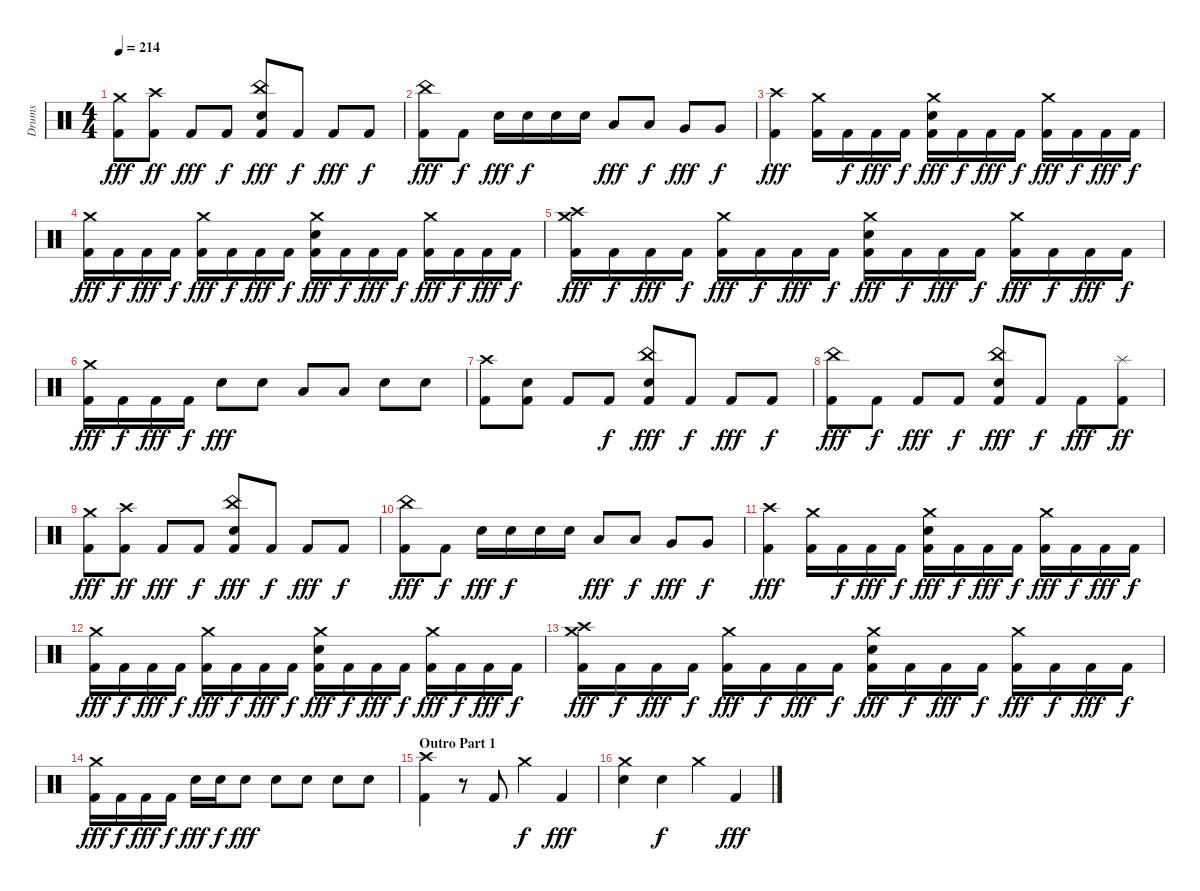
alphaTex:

\track ("Drums" "Drums") {instrument percussion}
\staff {score}
\articulation defaults
\ts (4 4)
\tempo 214
\clef neutral
\ks c
("Crash medium (hit)" "Kick (hit) 2").8{dy fff} ("Crash high (hit)" "Kick (hit) 2").8{dy ff} "Kick (hit) 2".8{dy fff} "Kick (hit) 2".8{dy f} ("China (hit)" "Electric Snare (hit)" "Kick (hit) 2").8{dy fff} "Kick (hit) 2".8{dy f} "Kick (hit) 2".8{dy fff} "Kick (hit) 2".8{dy f} |
("China (hit)" "Kick (hit) 2").8{dy fff} "Kick (hit) 2".8{dy f} "Electric Snare (hit)".16{dy fff} "Electric Snare (hit)".16{dy f} "Electric Snare (hit)".16 "Electric Snare (hit)".16 "Low Tom (hit)".8{dy fff} "Low Tom (hit)".8{dy f} "Very Low Tom (hit)".8{dy fff} "Very Low Tom (hit)".8{dy f} |
("Crash high (hit)" "Kick (hit) 2").4{dy fff} ("Crash medium (hit)" "Kick (hit) 2").16 "Kick (hit) 2".16{dy f} "Kick (hit) 2".16{dy fff} "Kick (hit) 2".16{dy f} ("Crash medium (hit)" "Electric Snare (hit)" "Kick (hit) 2").16{dy fff} "Kick (hit) 2".16{dy f} "Kick (hit) 2".16{dy fff} "Kick (hit) 2".16{dy f} ("Crash medium (hit)" "Kick (hit) 2").16{dy fff} "Kick (hit) 2".16{dy f} "Kick (hit) 2".16{dy fff} "Kick (hit) 2".16{dy f} |
("Crash medium (hit)" "Kick (hit) 2").16{dy fff} "Kick (hit) 2".16{dy f} "Kick (hit) 2".16{dy fff} "Kick (hit) 2".16{dy f} ("Crash medium (hit)" "Kick (hit) 2").16{dy fff} "Kick (hit) 2".16{dy f} "Kick (hit) 2".16{dy fff} "Kick (hit) 2".16{dy f} ("Crash medium (hit)" "Electric Snare (hit)" "Kick (hit) 2").16{dy fff} "Kick (hit) 2".16{dy f} "Kick (hit) 2".16{dy fff} "Kick (hit) 2".16{dy f} ("Crash medium (hit)" "Kick (hit) 2").16{dy fff} "Kick (hit) 2".16{dy f} "Kick (hit) 2".16{dy fff} "Kick (hit) 2".16{dy f} |
("Crash medium (hit)" "Crash high (hit)" "Kick (hit) 2").16{dy fff} "Kick (hit) 2".16{dy f} "Kick (hit) 2".16{dy fff} "Kick (hit) 2".16{dy f} ("Crash medium (hit)" "Kick (hit) 2").16{dy fff} "Kick (hit) 2".16{dy f} "Kick (hit) 2".16{dy fff} "Kick (hit) 2".16{dy f} ("Crash medium (hit)" "Electric Snare (hit)" "Kick (hit) 2").16{dy fff} "Kick (hit) 2".16{dy f} "Kick (hit) 2".16{dy fff} "Kick (hit) 2".16{dy f} ("Crash medium (hit)" "Kick (hit) 2").16{dy fff} "Kick (hit) 2".16{dy f} "Kick (hit) 2".16{dy fff} "Kick (hit) 2".16{dy f} |
("Crash medium (hit)" "Kick (hit) 2").16{dy fff} "Kick (hit) 2".16{dy f} "Kick (hit) 2".16{dy fff} "Kick (hit) 2".16{dy f} "Electric Snare (hit)".8{dy fff} "Electric Snare (hit)".8 "Low Tom (hit)".8 "Low Tom (hit)".8 "Electric Snare (hit)".8 "Electric Snare (hit)".8 |
("Crash high (hit)" "Kick (hit) 2").8 ("Electric Snare (hit)" "Kick (hit) 2").8 "Kick (hit) 2".8 "Kick (hit) 2".8{dy f} ("China (hit)" "Electric Snare (hit)" "Kick (hit) 2").8{dy fff} "Kick (hit) 2".8{dy f} "Kick (hit) 2".8{dy fff} "Kick (hit) 2".8{dy f} |
("China (hit)" "Kick (hit) 2").8{dy fff} "Kick (hit) 2".8{dy f} "Kick (hit) 2".8{dy fff} "Kick (hit) 2".8{dy f} ("China (hit)" "Electric Snare (hit)" "Kick (hit) 2").8{dy fff} "Kick (hit) 2".8{dy f} "Kick (hit) 2".8{dy fff} ("Splash (hit)" "Kick (hit) 2").8{dy ff} |
("Crash medium (hit)" "Kick (hit) 2").8{dy fff} ("Crash high (hit)" "Kick (hit) 2").8{dy ff} "Kick (hit) 2".8{dy fff} "Kick (hit) 2".8{dy f} ("China (hit)" "Electric Snare (hit)" "Kick (hit) 2").8{dy fff} "Kick (hit) 2".8{dy f} "Kick (hit) 2".8{dy fff} "Kick (hit) 2".8{dy f} |
("China (hit)" "Kick (hit) 2").8{dy fff} "Kick (hit) 2".8{dy f} "Electric Snare (hit)".16{dy fff} "Electric Snare (hit)".16{dy f} "Electric Snare (hit)".16 "Electric Snare (hit)".16 "Low Tom (hit)".8{dy fff} "Low Tom (hit)".8{dy f} "Very Low Tom (hit)".8{dy fff} "Very Low Tom (hit)".8{dy f} |
("Crash high (hit)" "Kick (hit) 2").4{dy fff} ("Crash medium (hit)" "Kick (hit) 2").16 "Kick (hit) 2".16{dy f} "Kick (hit) 2".16{dy fff} "Kick (hit) 2".16{dy f} ("Crash medium (hit)" "Electric Snare (hit)" "Kick (hit) 2").16{dy fff} "Kick (hit) 2".16{dy f} "Kick (hit) 2".16{dy fff} "Kick (hit) 2".16{dy f} ("Crash medium (hit)" "Kick (hit) 2").16{dy fff} "Kick (hit) 2".16{dy f} "Kick (hit) 2".16{dy fff} "Kick (hit) 2".16{dy f} |
("Crash medium (hit)" "Kick (hit) 2").16{dy fff} "Kick (hit) 2".16{dy f} "Kick (hit) 2".16{dy fff} "Kick (hit) 2".16{dy f} ("Crash medium (hit)" "Kick (hit) 2").16{dy fff} "Kick (hit) 2".16{dy f} "Kick (hit) 2".16{dy fff} "Kick (hit) 2".16{dy f} ("Crash medium (hit)" "Electric Snare (hit)" "Kick (hit) 2").16{dy fff} "Kick (hit) 2".16{dy f} "Kick (hit) 2".16{dy fff} "Kick (hit) 2".16{dy f} ("Crash medium (hit)" "Kick (hit) 2").16{dy fff} "Kick (hit) 2".16{dy f} "Kick (hit) 2".16{dy fff} "Kick (hit) 2".16{dy f} |
("Crash medium (hit)" "Crash high (hit)" "Kick (hit) 2").16{dy fff} "Kick (hit) 2".16{dy f} "Kick (hit) 2".16{dy fff} "Kick (hit) 2".16{dy f} ("Crash medium (hit)" "Kick (hit) 2").16{dy fff} "Kick (hit) 2".16{dy f} "Kick (hit) 2".16{dy fff} "Kick (hit) 2".16{dy f} ("Crash medium (hit)" "Electric Snare (hit)" "Kick (hit) 2").16{dy fff} "Kick (hit) 2".16{dy f} "Kick (hit) 2".16{dy fff} "Kick (hit) 2".16{dy f} ("Crash medium (hit)" "Kick (hit) 2").16{dy fff} "Kick (hit) 2".16{dy f} "Kick (hit) 2".16{dy fff} "Kick (hit) 2".16{dy f} |
("Crash medium (hit)" "Kick (hit) 2").16{dy fff} "Kick (hit) 2".16{dy f} "Kick (hit) 2".16{dy fff} "Kick (hit) 2".16{dy f} "Electric Snare (hit)".16{dy fff} "Electric Snare (hit)".16{dy f} "Electric Snare (hit)".8{dy fff} "Electric Snare (hit)".8 "Electric Snare (hit)".8 "Electric Snare (hit)".8 "Electric Snare (hit)".8 |
\section ("" "Outro Part 1")
("Crash high (hit)" "Kick (hit) 2").4 r.8 "Kick (hit) 2".8 "Crash medium (hit)".4{dy f} "Kick (hit) 2".4{dy fff} |
("Crash medium (hit)" "Electric Snare (hit)").4 "Electric Snare (hit)".4{dy f} "Crash medium (hit)".4 "Kick (hit) 2".4{dy fff}
